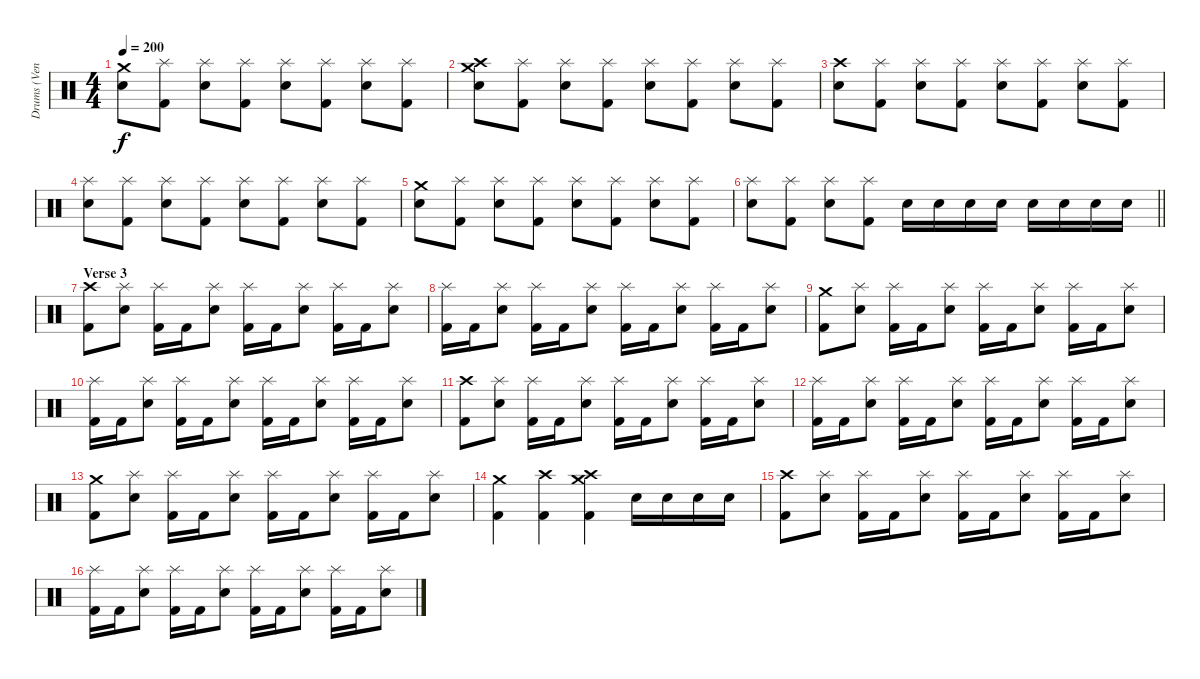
\track ("Drums (Ventor)" "Drums (Ven") {instrument percussion}
\staff {score}
\articulation defaults
\ts (4 4)
\tempo 200
\clef neutral
\ks c
("Electric Snare (hit)" "Crash medium (hit)").8{dy f} ("Splash (hit)" "Kick (hit) 2").8 ("Electric Snare (hit)" "Splash (hit)").8 ("Splash (hit)" "Kick (hit) 2").8 ("Electric Snare (hit)" "Splash (hit)").8 ("Splash (hit)" "Kick (hit) 2").8 ("Electric Snare (hit)" "Splash (hit)").8 ("Splash (hit)" "Kick (hit) 2").8 |
("Electric Snare (hit)" "Crash medium (hit)" "Crash high (hit)").8 ("Splash (hit)" "Kick (hit) 2").8 ("Electric Snare (hit)" "Splash (hit)").8 ("Splash (hit)" "Kick (hit) 2").8 ("Electric Snare (hit)" "Splash (hit)").8 ("Splash (hit)" "Kick (hit) 2").8 ("Electric Snare (hit)" "Splash (hit)").8 ("Splash (hit)" "Kick (hit) 2").8 |
("Electric Snare (hit)" "Crash high (hit)").8 ("Splash (hit)" "Kick (hit) 2").8 ("Electric Snare (hit)" "Splash (hit)").8 ("Splash (hit)" "Kick (hit) 2").8 ("Electric Snare (hit)" "Splash (hit)").8 ("Splash (hit)" "Kick (hit) 2").8 ("Electric Snare (hit)" "Splash (hit)").8 ("Splash (hit)" "Kick (hit) 2").8 |
("Electric Snare (hit)" "Splash (hit)").8 ("Splash (hit)" "Kick (hit) 2").8 ("Electric Snare (hit)" "Splash (hit)").8 ("Splash (hit)" "Kick (hit) 2").8 ("Electric Snare (hit)" "Splash (hit)").8 ("Splash (hit)" "Kick (hit) 2").8 ("Electric Snare (hit)" "Splash (hit)").8 ("Splash (hit)" "Kick (hit) 2").8 |
("Electric Snare (hit)" "Crash medium (hit)").8 ("Splash (hit)" "Kick (hit) 2").8 ("Electric Snare (hit)" "Splash (hit)").8 ("Splash (hit)" "Kick (hit) 2").8 ("Electric Snare (hit)" "Splash (hit)").8 ("Splash (hit)" "Kick (hit) 2").8 ("Electric Snare (hit)" "Splash (hit)").8 ("Splash (hit)" "Kick (hit) 2").8 |
\barLineRight lightlight
("Electric Snare (hit)" "Splash (hit)").8 ("Splash (hit)" "Kick (hit) 2").8 ("Electric Snare (hit)" "Splash (hit)").8 ("Splash (hit)" "Kick (hit) 2").8 "Electric Snare (hit)".16 "Electric Snare (hit)".16 "Electric Snare (hit)".16 "Electric Snare (hit)".16 "Electric Snare (hit)".16 "Electric Snare (hit)".16 "Electric Snare (hit)".16 "Electric Snare (hit)".16 |
\section ("" "Verse 3")
("Crash high (hit)" "Kick (hit) 2").8 ("Electric Snare (hit)" "Splash (hit)").8 ("Splash (hit)" "Kick (hit) 2").16 "Kick (hit) 2".16 ("Electric Snare (hit)" "Splash (hit)").8 ("Splash (hit)" "Kick (hit) 2").16 "Kick (hit) 2".16 ("Electric Snare (hit)" "Splash (hit)").8 ("Splash (hit)" "Kick (hit) 2").16 "Kick (hit) 2".16 ("Electric Snare (hit)" "Splash (hit)").8 |
("Splash (hit)" "Kick (hit) 2").16 "Kick (hit) 2".16 ("Electric Snare (hit)" "Splash (hit)").8 ("Splash (hit)" "Kick (hit) 2").16 "Kick (hit) 2".16 ("Electric Snare (hit)" "Splash (hit)").8 ("Splash (hit)" "Kick (hit) 2").16 "Kick (hit) 2".16 ("Electric Snare (hit)" "Splash (hit)").8 ("Splash (hit)" "Kick (hit) 2").16 "Kick (hit) 2".16 ("Electric Snare (hit)" "Splash (hit)").8 |
("Crash medium (hit)" "Kick (hit) 2").8 ("Electric Snare (hit)" "Splash (hit)").8 ("Splash (hit)" "Kick (hit) 2").16 "Kick (hit) 2".16 ("Electric Snare (hit)" "Splash (hit)").8 ("Splash (hit)" "Kick (hit) 2").16 "Kick (hit) 2".16 ("Electric Snare (hit)" "Splash (hit)").8 ("Splash (hit)" "Kick (hit) 2").16 "Kick (hit) 2".16 ("Electric Snare (hit)" "Splash (hit)").8 |
("Splash (hit)" "Kick (hit) 2").16 "Kick (hit) 2".16 ("Electric Snare (hit)" "Splash (hit)").8 ("Splash (hit)" "Kick (hit) 2").16 "Kick (hit) 2".16 ("Electric Snare (hit)" "Splash (hit)").8 ("Splash (hit)" "Kick (hit) 2").16 "Kick (hit) 2".16 ("Electric Snare (hit)" "Splash (hit)").8 ("Splash (hit)" "Kick (hit) 2").16 "Kick (hit) 2".16 ("Electric Snare (hit)" "Splash (hit)").8 |
("Crash high (hit)" "Kick (hit) 2").8 ("Electric Snare (hit)" "Splash (hit)").8 ("Splash (hit)" "Kick (hit) 2").16 "Kick (hit) 2".16 ("Electric Snare (hit)" "Splash (hit)").8 ("Splash (hit)" "Kick (hit) 2").16 "Kick (hit) 2".16 ("Electric Snare (hit)" "Splash (hit)").8 ("Splash (hit)" "Kick (hit) 2").16 "Kick (hit) 2".16 ("Electric Snare (hit)" "Splash (hit)").8 |
("Splash (hit)" "Kick (hit) 2").16 "Kick (hit) 2".16 ("Electric Snare (hit)" "Splash (hit)").8 ("Splash (hit)" "Kick (hit) 2").16 "Kick (hit) 2".16 ("Electric Snare (hit)" "Splash (hit)").8 ("Splash (hit)" "Kick (hit) 2").16 "Kick (hit) 2".16 ("Electric Snare (hit)" "Splash (hit)").8 ("Splash (hit)" "Kick (hit) 2").16 "Kick (hit) 2".16 ("Electric Snare (hit)" "Splash (hit)").8 |
("Crash medium (hit)" "Kick (hit) 2").8 ("Electric Snare (hit)" "Splash (hit)").8 ("Splash (hit)" "Kick (hit) 2").16 "Kick (hit) 2".16 ("Electric Snare (hit)" "Splash (hit)").8 ("Splash (hit)" "Kick (hit) 2").16 "Kick (hit) 2".16 ("Electric Snare (hit)" "Splash (hit)").8 ("Splash (hit)" "Kick (hit) 2").16 "Kick (hit) 2".16 ("Electric Snare (hit)" "Splash (hit)").8 |
("Crash medium (hit)" "Kick (hit) 2").4 ("Crash high (hit)" "Kick (hit) 2").4 ("Crash medium (hit)" "Crash high (hit)" "Kick (hit) 2").4 "Electric Snare (hit)".16 "Electric Snare (hit)".16 "Electric Snare (hit)".16 "Electric Snare (hit)".16 |
("Crash high (hit)" "Kick (hit) 2").8 ("Electric Snare (hit)" "Splash (hit)").8 ("Splash (hit)" "Kick (hit) 2").16 "Kick (hit) 2".16 ("Electric Snare (hit)" "Splash (hit)").8 ("Splash (hit)" "Kick (hit) 2").16 "Kick (hit) 2".16 ("Electric Snare (hit)" "Splash (hit)").8 ("Splash (hit)" "Kick (hit) 2").16 "Kick (hit) 2".16 ("Electric Snare (hit)" "Splash (hit)").8 |
("Splash (hit)" "Kick (hit) 2").16 "Kick (hit) 2".16 ("Electric Snare (hit)" "Splash (hit)").8 ("Splash (hit)" "Kick (hit) 2").16 "Kick (hit) 2".16 ("Electric Snare (hit)" "Splash (hit)").8 ("Splash (hit)" "Kick (hit) 2").16 "Kick (hit) 2".16 ("Electric Snare (hit)" "Splash (hit)").8 ("Splash (hit)" "Kick (hit) 2").16 "Kick (hit) 2".16 ("Electric Snare (hit)" "Splash (hit)").8
